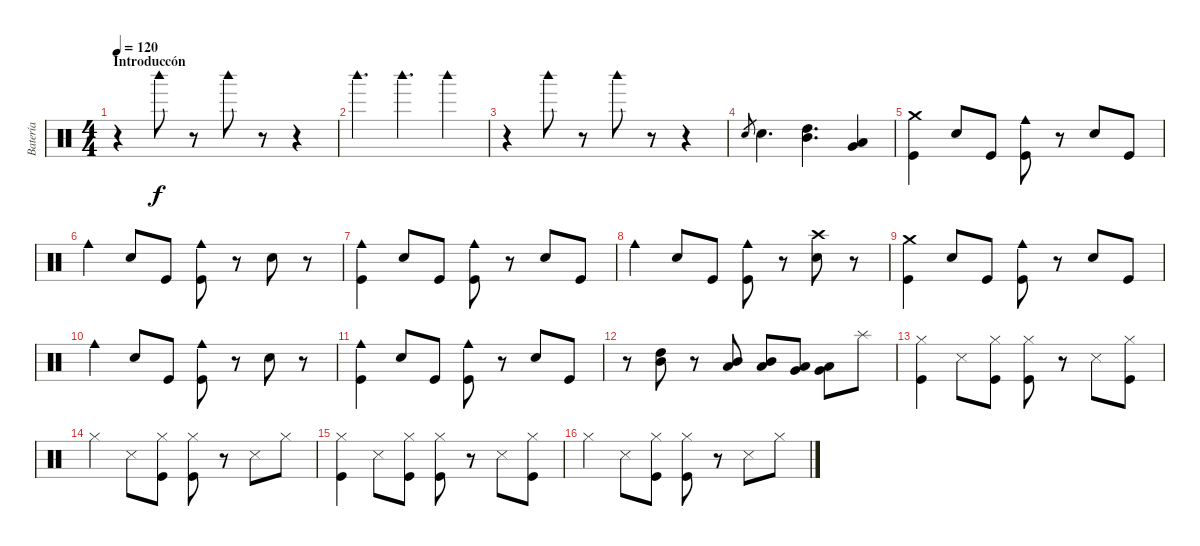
\track ("Batería" "Batería") {instrument percussion}
\staff {score}
\articulation defaults
\ts (4 4)
\section ("" "Introduccón")
\tempo 120
\clef neutral
\ks c
r.4{dy f} "Woodblock high (hit)".8 r.8 "Woodblock high (hit)".8 r.8 r.4 |
"Woodblock high (hit)".4{d} "Woodblock high (hit)".4{d} "Woodblock high (hit)".4 |
r.4 "Woodblock high (hit)".8 r.8 "Woodblock high (hit)".8 r.8 r.4 |
"Electric Snare (hit)".8{gr} "Electric Snare (hit)".4{d} ("Mid Tom (hit)" "High Tom (hit)").4{d} ("Low Tom (hit)" "Very Low Tom (hit)").4 |
("Crash medium (hit)" "Kick (hit)").4 "Electric Snare (hit)".8 "Kick (hit)".8 ("Cowbell medium (hit)" "Kick (hit)").8 r.8 "Electric Snare (hit)".8 "Kick (hit)".8 |
"Cowbell medium (hit)".4 "Electric Snare (hit)".8 "Kick (hit)".8 ("Cowbell medium (hit)" "Kick (hit)").8 r.8 "Electric Snare (hit)".8 r.8 |
("Cowbell medium (hit)" "Kick (hit)").4 "Electric Snare (hit)".8 "Kick (hit)".8 ("Cowbell medium (hit)" "Kick (hit)").8 r.8 "Electric Snare (hit)".8 "Kick (hit)".8 |
"Cowbell medium (hit)".4 "Electric Snare (hit)".8 "Kick (hit)".8 ("Cowbell medium (hit)" "Kick (hit)").8 r.8 ("Crash high (hit)" "Electric Snare (hit)").8 r.8 |
("Crash medium (hit)" "Kick (hit)").4 "Electric Snare (hit)".8 "Kick (hit)".8 ("Cowbell medium (hit)" "Kick (hit)").8 r.8 "Electric Snare (hit)".8 "Kick (hit)".8 |
"Cowbell medium (hit)".4 "Electric Snare (hit)".8 "Kick (hit)".8 ("Cowbell medium (hit)" "Kick (hit)").8 r.8 "Electric Snare (hit)".8 r.8 |
("Cowbell medium (hit)" "Kick (hit)").4 "Electric Snare (hit)".8 "Kick (hit)".8 ("Cowbell medium (hit)" "Kick (hit)").8 r.8 "Electric Snare (hit)".8 "Kick (hit)".8 |
r.8 ("Mid Tom (hit)" "High Tom (hit)").8 r.8 ("Low Tom (hit)" "Mid Tom (hit)").8 ("Low Tom (hit)" "Mid Tom (hit)").8 ("Low Tom (hit)" "Very Low Tom (hit)").8 ("Low Tom (hit)" "Very Low Tom (hit)").8 "Splash (hit)".8 |
("Hi-Hat (closed)" "Kick (hit)").4 "Snare (side stick) 3".8 ("Hi-Hat (closed)" "Kick (hit)").8 ("Hi-Hat (closed)" "Kick (hit)").8 r.8 "Snare (side stick) 3".8 ("Hi-Hat (closed)" "Kick (hit)").8 |
"Hi-Hat (closed)".4 "Snare (side stick) 3".8 ("Hi-Hat (closed)" "Kick (hit)").8 ("Hi-Hat (closed)" "Kick (hit)").8 r.8 "Snare (side stick) 3".8 "Hi-Hat (closed)".8 |
("Hi-Hat (closed)" "Kick (hit)").4 "Snare (side stick) 3".8 ("Hi-Hat (closed)" "Kick (hit)").8 ("Hi-Hat (closed)" "Kick (hit)").8 r.8 "Snare (side stick) 3".8 ("Hi-Hat (closed)" "Kick (hit)").8 |
"Hi-Hat (closed)".4 "Snare (side stick) 3".8 ("Hi-Hat (closed)" "Kick (hit)").8 ("Hi-Hat (closed)" "Kick (hit)").8 r.8 "Snare (side stick) 3".8 "Hi-Hat (closed)".8
